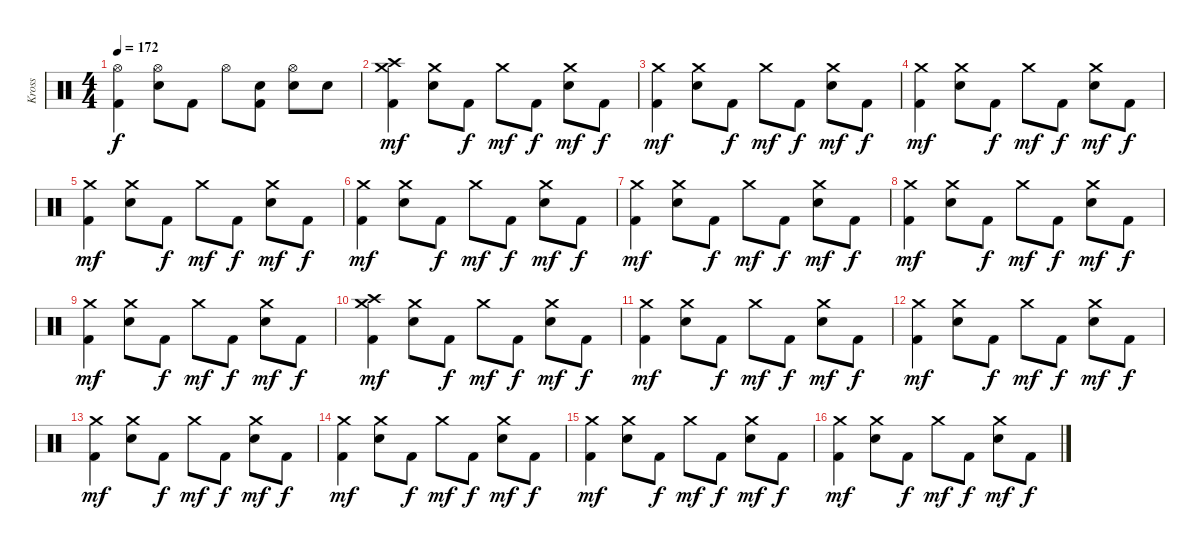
\track ("Kross" "Kross") {instrument percussion}
\staff {score}
\articulation defaults
\ts (4 4)
\tempo 172
\clef neutral
\ks c
("Hi-Hat (open)" "Kick (hit) 2").4{dy f} ("Hi-Hat (open)" "Electric Snare (hit)").8 "Kick (hit) 2".8 "Hi-Hat (open)".8 ("Electric Snare (hit)" "Kick (hit) 2").8 ("Hi-Hat (open)" "Electric Snare (hit)").8 "Electric Snare (hit)".8 |
("Crash medium (hit)" "Crash high (hit)" "Kick (hit) 2").4{dy mf} ("Crash medium (hit)" "Electric Snare (hit)").8 "Kick (hit) 2".8{dy f} "Crash medium (hit)".8{dy mf} "Kick (hit) 2".8{dy f} ("Crash medium (hit)" "Electric Snare (hit)").8{dy mf} "Kick (hit) 2".8{dy f} |
("Crash medium (hit)" "Kick (hit) 2").4{dy mf} ("Crash medium (hit)" "Electric Snare (hit)").8 "Kick (hit) 2".8{dy f} "Crash medium (hit)".8{dy mf} "Kick (hit) 2".8{dy f} ("Crash medium (hit)" "Electric Snare (hit)").8{dy mf} "Kick (hit) 2".8{dy f} |
("Crash medium (hit)" "Kick (hit) 2").4{dy mf} ("Crash medium (hit)" "Electric Snare (hit)").8 "Kick (hit) 2".8{dy f} "Crash medium (hit)".8{dy mf} "Kick (hit) 2".8{dy f} ("Crash medium (hit)" "Electric Snare (hit)").8{dy mf} "Kick (hit) 2".8{dy f} |
("Crash medium (hit)" "Kick (hit) 2").4{dy mf} ("Crash medium (hit)" "Electric Snare (hit)").8 "Kick (hit) 2".8{dy f} "Crash medium (hit)".8{dy mf} "Kick (hit) 2".8{dy f} ("Crash medium (hit)" "Electric Snare (hit)").8{dy mf} "Kick (hit) 2".8{dy f} |
("Crash medium (hit)" "Kick (hit) 2").4{dy mf} ("Crash medium (hit)" "Electric Snare (hit)").8 "Kick (hit) 2".8{dy f} "Crash medium (hit)".8{dy mf} "Kick (hit) 2".8{dy f} ("Crash medium (hit)" "Electric Snare (hit)").8{dy mf} "Kick (hit) 2".8{dy f} |
("Crash medium (hit)" "Kick (hit) 2").4{dy mf} ("Crash medium (hit)" "Electric Snare (hit)").8 "Kick (hit) 2".8{dy f} "Crash medium (hit)".8{dy mf} "Kick (hit) 2".8{dy f} ("Crash medium (hit)" "Electric Snare (hit)").8{dy mf} "Kick (hit) 2".8{dy f} |
("Crash medium (hit)" "Kick (hit) 2").4{dy mf} ("Crash medium (hit)" "Electric Snare (hit)").8 "Kick (hit) 2".8{dy f} "Crash medium (hit)".8{dy mf} "Kick (hit) 2".8{dy f} ("Crash medium (hit)" "Electric Snare (hit)").8{dy mf} "Kick (hit) 2".8{dy f} |
("Crash medium (hit)" "Kick (hit) 2").4{dy mf} ("Crash medium (hit)" "Electric Snare (hit)").8 "Kick (hit) 2".8{dy f} "Crash medium (hit)".8{dy mf} "Kick (hit) 2".8{dy f} ("Crash medium (hit)" "Electric Snare (hit)").8{dy mf} "Kick (hit) 2".8{dy f} |
("Crash high (hit)" "Crash medium (hit)" "Kick (hit) 2").4{dy mf} ("Crash medium (hit)" "Electric Snare (hit)").8 "Kick (hit) 2".8{dy f} "Crash medium (hit)".8{dy mf} "Kick (hit) 2".8{dy f} ("Crash medium (hit)" "Electric Snare (hit)").8{dy mf} "Kick (hit) 2".8{dy f} |
("Crash medium (hit)" "Kick (hit) 2").4{dy mf} ("Crash medium (hit)" "Electric Snare (hit)").8 "Kick (hit) 2".8{dy f} "Crash medium (hit)".8{dy mf} "Kick (hit) 2".8{dy f} ("Crash medium (hit)" "Electric Snare (hit)").8{dy mf} "Kick (hit) 2".8{dy f} |
("Crash medium (hit)" "Kick (hit) 2").4{dy mf} ("Crash medium (hit)" "Electric Snare (hit)").8 "Kick (hit) 2".8{dy f} "Crash medium (hit)".8{dy mf} "Kick (hit) 2".8{dy f} ("Crash medium (hit)" "Electric Snare (hit)").8{dy mf} "Kick (hit) 2".8{dy f} |
("Crash medium (hit)" "Kick (hit) 2").4{dy mf} ("Crash medium (hit)" "Electric Snare (hit)").8 "Kick (hit) 2".8{dy f} "Crash medium (hit)".8{dy mf} "Kick (hit) 2".8{dy f} ("Crash medium (hit)" "Electric Snare (hit)").8{dy mf} "Kick (hit) 2".8{dy f} |
("Crash medium (hit)" "Kick (hit) 2").4{dy mf} ("Crash medium (hit)" "Electric Snare (hit)").8 "Kick (hit) 2".8{dy f} "Crash medium (hit)".8{dy mf} "Kick (hit) 2".8{dy f} ("Crash medium (hit)" "Electric Snare (hit)").8{dy mf} "Kick (hit) 2".8{dy f} |
("Crash medium (hit)" "Kick (hit) 2").4{dy mf} ("Crash medium (hit)" "Electric Snare (hit)").8 "Kick (hit) 2".8{dy f} "Crash medium (hit)".8{dy mf} "Kick (hit) 2".8{dy f} ("Crash medium (hit)" "Electric Snare (hit)").8{dy mf} "Kick (hit) 2".8{dy f} |
("Crash medium (hit)" "Kick (hit) 2").4{dy mf} ("Crash medium (hit)" "Electric Snare (hit)").8 "Kick (hit) 2".8{dy f} "Crash medium (hit)".8{dy mf} "Kick (hit) 2".8{dy f} ("Crash medium (hit)" "Electric Snare (hit)").8{dy mf} "Kick (hit) 2".8{dy f}
